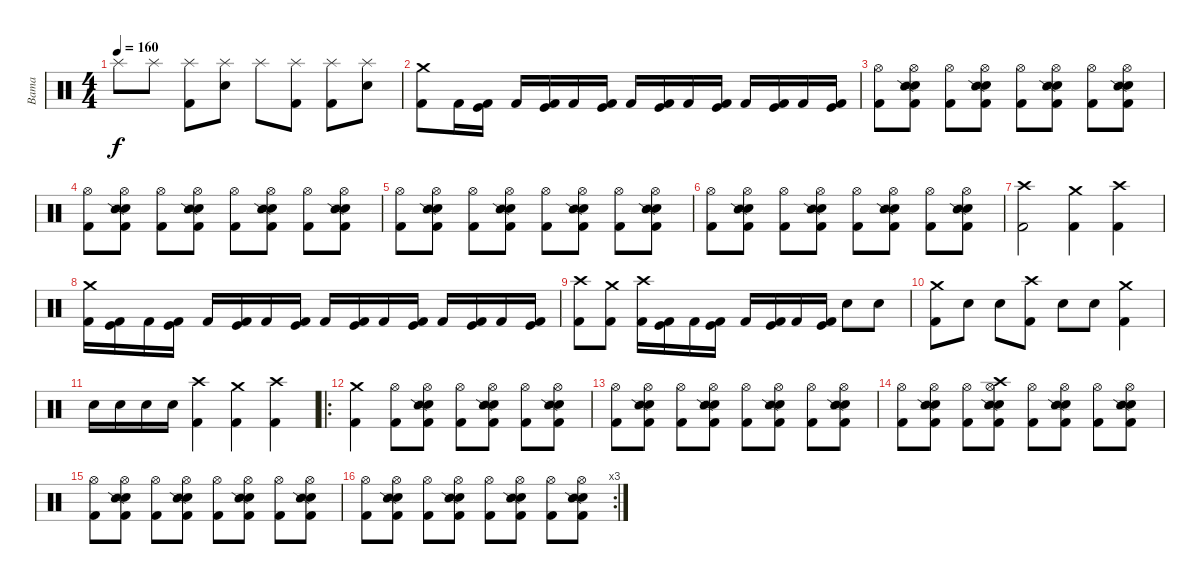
\track ("Bama" "Bama") {instrument percussion}
\staff {score}
\articulation defaults
\ts (4 4)
\tempo 160
\clef neutral
\ks c "Splash (hit)".8{dy f} "Splash (hit)".8
("Splash (hit)" "Kick (hit) 2").8 ("Splash (hit)" "Electric Snare (hit)").8 "Splash (hit)".8 ("Splash (hit)" "Kick (hit) 2").8 ("Splash (hit)" "Kick (hit) 2").8 ("Splash (hit)" "Electric Snare (hit)").8 |
("Crash medium (hit)" "Kick (hit) 2").8 "Kick (hit) 2".16 ("Kick (hit)" "Kick (hit) 2").16 "Kick (hit) 2".16 ("Kick (hit)" "Kick (hit) 2").16 "Kick (hit) 2".16 ("Kick (hit)" "Kick (hit) 2").16 "Kick (hit) 2".16 ("Kick (hit)" "Kick (hit) 2").16 "Kick (hit) 2".16 ("Kick (hit)" "Kick (hit) 2").16 "Kick (hit) 2".16 ("Kick (hit)" "Kick (hit) 2").16 "Kick (hit) 2".16 ("Kick (hit)" "Kick (hit) 2").16 |
("Hi-Hat (open)" "Kick (hit) 2").8 ("Hi-Hat (open)" "Electric Snare (hit)" "Snare (side stick) 2" "Kick (hit) 2").8 ("Hi-Hat (open)" "Kick (hit) 2").8 ("Hi-Hat (open)" "Electric Snare (hit)" "Snare (side stick) 2" "Kick (hit) 2").8 ("Hi-Hat (open)" "Kick (hit) 2").8 ("Hi-Hat (open)" "Electric Snare (hit)" "Snare (side stick) 2" "Kick (hit) 2").8 ("Hi-Hat (open)" "Kick (hit) 2").8 ("Hi-Hat (open)" "Electric Snare (hit)" "Snare (side stick) 2" "Kick (hit) 2").8 |
("Hi-Hat (open)" "Kick (hit) 2").8 ("Hi-Hat (open)" "Electric Snare (hit)" "Snare (side stick) 2" "Kick (hit) 2").8 ("Hi-Hat (open)" "Kick (hit) 2").8 ("Hi-Hat (open)" "Electric Snare (hit)" "Snare (side stick) 2" "Kick (hit) 2").8 ("Hi-Hat (open)" "Kick (hit) 2").8 ("Hi-Hat (open)" "Electric Snare (hit)" "Snare (side stick) 2" "Kick (hit) 2").8 ("Hi-Hat (open)" "Kick (hit) 2").8 ("Hi-Hat (open)" "Electric Snare (hit)" "Snare (side stick) 2" "Kick (hit) 2").8 |
("Hi-Hat (open)" "Kick (hit) 2").8 ("Hi-Hat (open)" "Electric Snare (hit)" "Snare (side stick) 2" "Kick (hit) 2").8 ("Hi-Hat (open)" "Kick (hit) 2").8 ("Hi-Hat (open)" "Electric Snare (hit)" "Snare (side stick) 2" "Kick (hit) 2").8 ("Hi-Hat (open)" "Kick (hit) 2").8 ("Hi-Hat (open)" "Electric Snare (hit)" "Snare (side stick) 2" "Kick (hit) 2").8 ("Hi-Hat (open)" "Kick (hit) 2").8 ("Hi-Hat (open)" "Electric Snare (hit)" "Snare (side stick) 2" "Kick (hit) 2").8 |
("Hi-Hat (open)" "Kick (hit) 2").8 ("Hi-Hat (open)" "Electric Snare (hit)" "Snare (side stick) 2" "Kick (hit) 2").8 ("Hi-Hat (open)" "Kick (hit) 2").8 ("Hi-Hat (open)" "Electric Snare (hit)" "Snare (side stick) 2" "Kick (hit) 2").8 ("Hi-Hat (open)" "Kick (hit) 2").8 ("Hi-Hat (open)" "Electric Snare (hit)" "Snare (side stick) 2" "Kick (hit) 2").8 ("Hi-Hat (open)" "Kick (hit) 2").8 ("Hi-Hat (open)" "Electric Snare (hit)" "Snare (side stick) 2" "Kick (hit) 2").8 |
("Crash high (hit)" "Kick (hit) 2").2 ("Crash medium (hit)" "Kick (hit) 2").4 ("Crash high (hit)" "Kick (hit) 2").4 |
("Crash medium (hit)" "Kick (hit) 2").16 ("Kick (hit)" "Kick (hit) 2").16 "Kick (hit) 2".16 ("Kick (hit)" "Kick (hit) 2").16 "Kick (hit) 2".16 ("Kick (hit)" "Kick (hit) 2").16 "Kick (hit) 2".16 ("Kick (hit)" "Kick (hit) 2").16 "Kick (hit) 2".16 ("Kick (hit)" "Kick (hit) 2").16 "Kick (hit) 2".16 ("Kick (hit)" "Kick (hit) 2").16 "Kick (hit) 2".16 ("Kick (hit)" "Kick (hit) 2").16 "Kick (hit) 2".16 ("Kick (hit)" "Kick (hit) 2").16 |
("Crash high (hit)" "Kick (hit) 2").8 ("Crash medium (hit)" "Kick (hit) 2").8 ("Crash high (hit)" "Kick (hit) 2").16 ("Kick (hit)" "Kick (hit) 2").16 "Kick (hit) 2".16 ("Kick (hit)" "Kick (hit) 2").16 "Kick (hit) 2".16 ("Kick (hit)" "Kick (hit) 2").16 "Kick (hit) 2".16 ("Kick (hit)" "Kick (hit) 2").16 "Electric Snare (hit)".8 "Electric Snare (hit)".8 |
("Crash medium (hit)" "Kick (hit) 2").8 "Electric Snare (hit)".8 "Electric Snare (hit)".8 ("Crash high (hit)" "Kick (hit) 2").8 "Electric Snare (hit)".8 "Electric Snare (hit)".8 ("Crash medium (hit)" "Kick (hit) 2").4 |
"Electric Snare (hit)".16 "Electric Snare (hit)".16 "Electric Snare (hit)".16 "Electric Snare (hit)".16 ("Crash high (hit)" "Kick (hit) 2").4 ("Crash medium (hit)" "Kick (hit) 2").4 ("Crash high (hit)" "Kick (hit) 2").4 |
\ro
("Crash medium (hit)" "Kick (hit) 2").4 ("Hi-Hat (open)" "Kick (hit) 2").8 ("Hi-Hat (open)" "Electric Snare (hit)" "Snare (side stick) 2" "Kick (hit) 2").8 ("Hi-Hat (open)" "Kick (hit) 2").8 ("Hi-Hat (open)" "Electric Snare (hit)" "Snare (side stick) 2" "Kick (hit) 2").8 ("Hi-Hat (open)" "Kick (hit) 2").8 ("Hi-Hat (open)" "Electric Snare (hit)" "Snare (side stick) 2" "Kick (hit) 2").8 |
("Hi-Hat (open)" "Kick (hit) 2").8 ("Hi-Hat (open)" "Electric Snare (hit)" "Snare (side stick) 2" "Kick (hit) 2").8 ("Hi-Hat (open)" "Kick (hit) 2").8 ("Hi-Hat (open)" "Electric Snare (hit)" "Snare (side stick) 2" "Kick (hit) 2").8 ("Hi-Hat (open)" "Kick (hit) 2").8 ("Hi-Hat (open)" "Electric Snare (hit)" "Snare (side stick) 2" "Kick (hit) 2").8 ("Hi-Hat (open)" "Kick (hit) 2").8 ("Hi-Hat (open)" "Electric Snare (hit)" "Snare (side stick) 2" "Kick (hit) 2").8 |
("Hi-Hat (open)" "Kick (hit) 2").8 ("Hi-Hat (open)" "Electric Snare (hit)" "Snare (side stick) 2" "Kick (hit) 2").8 ("Hi-Hat (open)" "Kick (hit) 2").8 ("Crash high (hit)" "Hi-Hat (open)" "Electric Snare (hit)" "Snare (side stick) 2" "Kick (hit) 2").8 ("Hi-Hat (open)" "Kick (hit) 2").8 ("Hi-Hat (open)" "Electric Snare (hit)" "Snare (side stick) 2" "Kick (hit) 2").8 ("Hi-Hat (open)" "Kick (hit) 2").8 ("Hi-Hat (open)" "Electric Snare (hit)" "Snare (side stick) 2" "Kick (hit) 2").8 |
("Hi-Hat (open)" "Kick (hit) 2").8 ("Hi-Hat (open)" "Electric Snare (hit)" "Snare (side stick) 2" "Kick (hit) 2").8 ("Hi-Hat (open)" "Kick (hit) 2").8 ("Hi-Hat (open)" "Electric Snare (hit)" "Snare (side stick) 2" "Kick (hit) 2").8 ("Hi-Hat (open)" "Kick (hit) 2").8 ("Hi-Hat (open)" "Electric Snare (hit)" "Snare (side stick) 2" "Kick (hit) 2").8 ("Hi-Hat (open)" "Kick (hit) 2").8 ("Hi-Hat (open)" "Electric Snare (hit)" "Snare (side stick) 2" "Kick (hit) 2").8 |
\rc 3
("Hi-Hat (open)" "Kick (hit) 2").8 ("Hi-Hat (open)" "Electric Snare (hit)" "Snare (side stick) 2" "Kick (hit) 2").8 ("Hi-Hat (open)" "Kick (hit) 2").8 ("Hi-Hat (open)" "Electric Snare (hit)" "Snare (side stick) 2" "Kick (hit) 2").8 ("Hi-Hat (open)" "Kick (hit) 2").8 ("Hi-Hat (open)" "Electric Snare (hit)" "Snare (side stick) 2" "Kick (hit) 2").8 ("Hi-Hat (open)" "Kick (hit) 2").8 ("Hi-Hat (open)" "Electric Snare (hit)" "Snare (side stick) 2" "Kick (hit) 2").8
